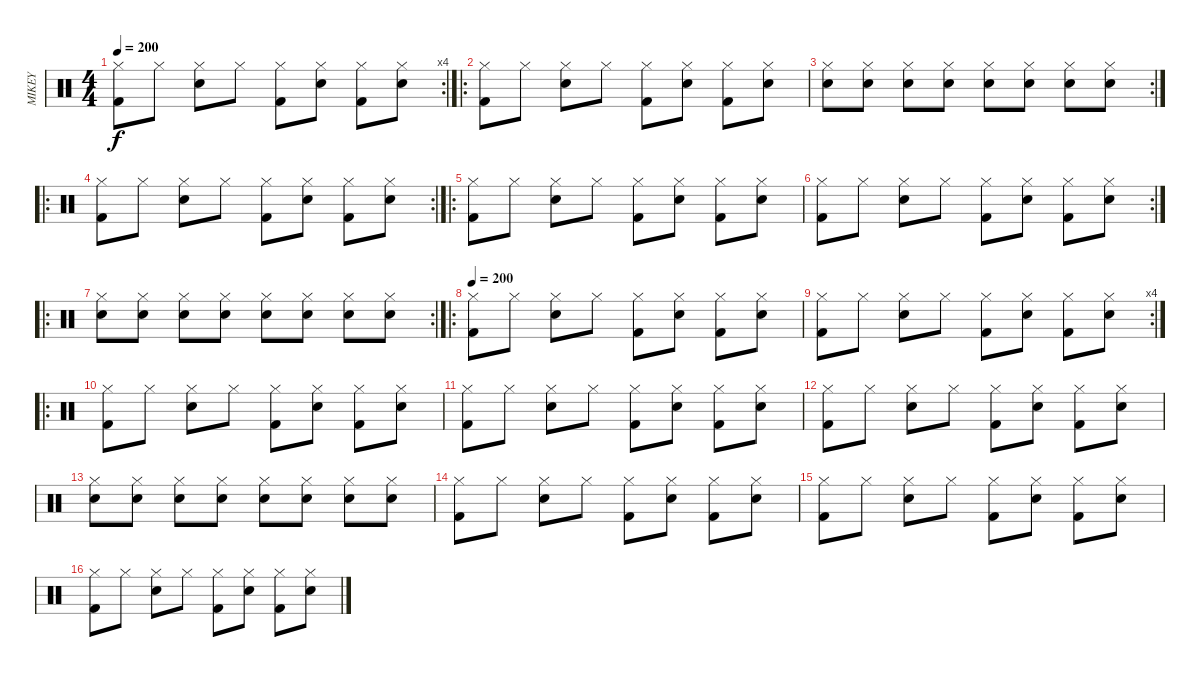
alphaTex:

\track ("MIKEY" "MIKEY") {instrument percussion}
\staff {score}
\articulation defaults
\rc 4
\ts (4 4)
\tempo 200
\clef neutral
\ks c
("Kick (hit) 2" "Hi-Hat (closed)").8{dy f} "Hi-Hat (closed)".8 ("Snare (hit) 2" "Hi-Hat (closed)").8 "Hi-Hat (closed)".8 ("Kick (hit) 2" "Hi-Hat (closed)").8 ("Snare (hit) 2" "Hi-Hat (closed)").8 ("Kick (hit) 2" "Hi-Hat (closed)").8 ("Snare (hit) 2" "Hi-Hat (closed)").8 |
\ro
("Kick (hit) 2" "Hi-Hat (closed)").8 "Hi-Hat (closed)".8 ("Snare (hit) 2" "Hi-Hat (closed)").8 "Hi-Hat (closed)".8 ("Kick (hit) 2" "Hi-Hat (closed)").8 ("Snare (hit) 2" "Hi-Hat (closed)").8 ("Kick (hit) 2" "Hi-Hat (closed)").8 ("Snare (hit) 2" "Hi-Hat (closed)").8 |
\rc 2
("Snare (hit) 2" "Hi-Hat (closed)").8 ("Snare (hit) 2" "Hi-Hat (closed)").8 ("Snare (hit) 2" "Hi-Hat (closed)").8 ("Snare (hit) 2" "Hi-Hat (closed)").8 ("Snare (hit) 2" "Hi-Hat (closed)").8 ("Snare (hit) 2" "Hi-Hat (closed)").8 ("Snare (hit) 2" "Hi-Hat (closed)").8 ("Snare (hit) 2" "Hi-Hat (closed)").8 |
\ro
\rc 2
("Kick (hit) 2" "Hi-Hat (closed)").8 "Hi-Hat (closed)".8 ("Snare (hit) 2" "Hi-Hat (closed)").8 "Hi-Hat (closed)".8 ("Kick (hit) 2" "Hi-Hat (closed)").8 ("Snare (hit) 2" "Hi-Hat (closed)").8 ("Kick (hit) 2" "Hi-Hat (closed)").8 ("Snare (hit) 2" "Hi-Hat (closed)").8 |
\ro
("Kick (hit) 2" "Hi-Hat (closed)").8 "Hi-Hat (closed)".8 ("Snare (hit) 2" "Hi-Hat (closed)").8 "Hi-Hat (closed)".8 ("Kick (hit) 2" "Hi-Hat (closed)").8 ("Snare (hit) 2" "Hi-Hat (closed)").8 ("Kick (hit) 2" "Hi-Hat (closed)").8 ("Snare (hit) 2" "Hi-Hat (closed)").8 |
\rc 2
("Kick (hit) 2" "Hi-Hat (closed)").8 "Hi-Hat (closed)".8 ("Snare (hit) 2" "Hi-Hat (closed)").8 "Hi-Hat (closed)".8 ("Kick (hit) 2" "Hi-Hat (closed)").8 ("Snare (hit) 2" "Hi-Hat (closed)").8 ("Kick (hit) 2" "Hi-Hat (closed)").8 ("Snare (hit) 2" "Hi-Hat (closed)").8 |
\ro
\rc 2
("Snare (hit) 2" "Hi-Hat (closed)").8 ("Snare (hit) 2" "Hi-Hat (closed)").8 ("Snare (hit) 2" "Hi-Hat (closed)").8 ("Snare (hit) 2" "Hi-Hat (closed)").8 ("Snare (hit) 2" "Hi-Hat (closed)").8 ("Snare (hit) 2" "Hi-Hat (closed)").8 ("Snare (hit) 2" "Hi-Hat (closed)").8 ("Snare (hit) 2" "Hi-Hat (closed)").8 |
\ro
\tempo 200
("Kick (hit) 2" "Hi-Hat (closed)").8 "Hi-Hat (closed)".8 ("Snare (hit) 2" "Hi-Hat (closed)").8 "Hi-Hat (closed)".8 ("Kick (hit) 2" "Hi-Hat (closed)").8 ("Snare (hit) 2" "Hi-Hat (closed)").8 ("Kick (hit) 2" "Hi-Hat (closed)").8 ("Snare (hit) 2" "Hi-Hat (closed)").8 |
\rc 4
("Kick (hit) 2" "Hi-Hat (closed)").8 "Hi-Hat (closed)".8 ("Snare (hit) 2" "Hi-Hat (closed)").8 "Hi-Hat (closed)".8 ("Kick (hit) 2" "Hi-Hat (closed)").8 ("Snare (hit) 2" "Hi-Hat (closed)").8 ("Kick (hit) 2" "Hi-Hat (closed)").8 ("Snare (hit) 2" "Hi-Hat (closed)").8 |
\ro
("Kick (hit) 2" "Hi-Hat (closed)").8 "Hi-Hat (closed)".8 ("Snare (hit) 2" "Hi-Hat (closed)").8 "Hi-Hat (closed)".8 ("Kick (hit) 2" "Hi-Hat (closed)").8 ("Snare (hit) 2" "Hi-Hat (closed)").8 ("Kick (hit) 2" "Hi-Hat (closed)").8 ("Snare (hit) 2" "Hi-Hat (closed)").8 |
("Kick (hit) 2" "Hi-Hat (closed)").8 "Hi-Hat (closed)".8 ("Snare (hit) 2" "Hi-Hat (closed)").8 "Hi-Hat (closed)".8 ("Kick (hit) 2" "Hi-Hat (closed)").8 ("Snare (hit) 2" "Hi-Hat (closed)").8 ("Kick (hit) 2" "Hi-Hat (closed)").8 ("Snare (hit) 2" "Hi-Hat (closed)").8 |
("Kick (hit) 2" "Hi-Hat (closed)").8 "Hi-Hat (closed)".8 ("Snare (hit) 2" "Hi-Hat (closed)").8 "Hi-Hat (closed)".8 ("Kick (hit) 2" "Hi-Hat (closed)").8 ("Snare (hit) 2" "Hi-Hat (closed)").8 ("Kick (hit) 2" "Hi-Hat (closed)").8 ("Snare (hit) 2" "Hi-Hat (closed)").8 |
("Snare (hit) 2" "Hi-Hat (closed)").8 ("Snare (hit) 2" "Hi-Hat (closed)").8 ("Snare (hit) 2" "Hi-Hat (closed)").8 ("Snare (hit) 2" "Hi-Hat (closed)").8 ("Snare (hit) 2" "Hi-Hat (closed)").8 ("Snare (hit) 2" "Hi-Hat (closed)").8 ("Snare (hit) 2" "Hi-Hat (closed)").8 ("Snare (hit) 2" "Hi-Hat (closed)").8 |
("Kick (hit) 2" "Hi-Hat (closed)").8 "Hi-Hat (closed)".8 ("Snare (hit) 2" "Hi-Hat (closed)").8 "Hi-Hat (closed)".8 ("Kick (hit) 2" "Hi-Hat (closed)").8 ("Snare (hit) 2" "Hi-Hat (closed)").8 ("Kick (hit) 2" "Hi-Hat (closed)").8 ("Snare (hit) 2" "Hi-Hat (closed)").8 |
("Kick (hit) 2" "Hi-Hat (closed)").8 "Hi-Hat (closed)".8 ("Snare (hit) 2" "Hi-Hat (closed)").8 "Hi-Hat (closed)".8 ("Kick (hit) 2" "Hi-Hat (closed)").8 ("Snare (hit) 2" "Hi-Hat (closed)").8 ("Kick (hit) 2" "Hi-Hat (closed)").8 ("Snare (hit) 2" "Hi-Hat (closed)").8 |
("Kick (hit) 2" "Hi-Hat (closed)").8 "Hi-Hat (closed)".8 ("Snare (hit) 2" "Hi-Hat (closed)").8 "Hi-Hat (closed)".8 ("Kick (hit) 2" "Hi-Hat (closed)").8 ("Snare (hit) 2" "Hi-Hat (closed)").8 ("Kick (hit) 2" "Hi-Hat (closed)").8 ("Snare (hit) 2" "Hi-Hat (closed)").8
